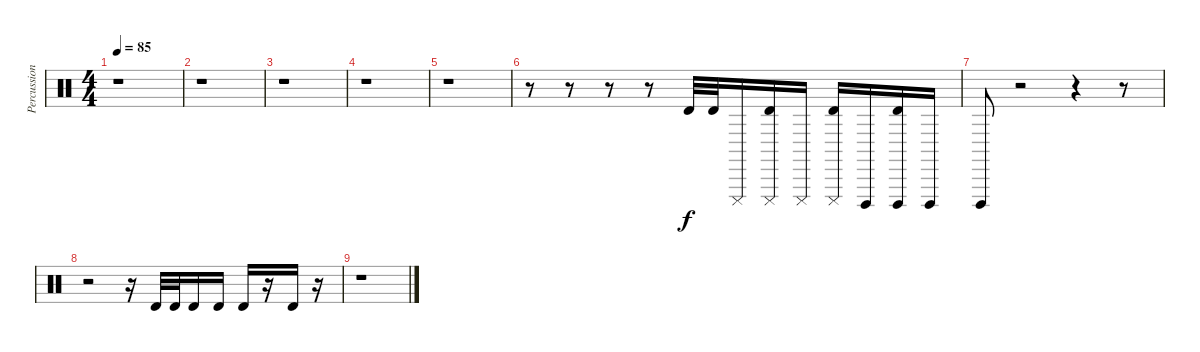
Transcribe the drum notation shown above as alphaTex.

\track ("Percussions" "Percussion") {instrument percussion}
\staff {score}
\articulation defaults
\ts (4 4)
\tempo 85
\clef neutral
\ks c
r.1{dy f} |
r.1 |
r.1 |
r.1 |
r.1 |
r.8 r.8 r.8 r.8 "Timbale high (hit)".32 "Timbale high (hit)".32 "Cuica (mute)".16 ("Cuica (mute)" "Timbale high (hit)").16 "Cuica (mute)".16 ("Cuica (mute)" "Timbale high (hit)").16 "Cuica (open)".16 ("Cuica (open)" "Timbale high (hit)").16 "Cuica (open)".16 |
"Cuica (open)".8 r.2 r.4 r.8 |
r.2 r.16 "Timbale high (hit)".32 "Timbale high (hit)".32 "Timbale high (hit)".16 "Timbale high (hit)".16 "Timbale high (hit)".16 r.16 "Timbale high (hit)".16 r.16 |
r.1
